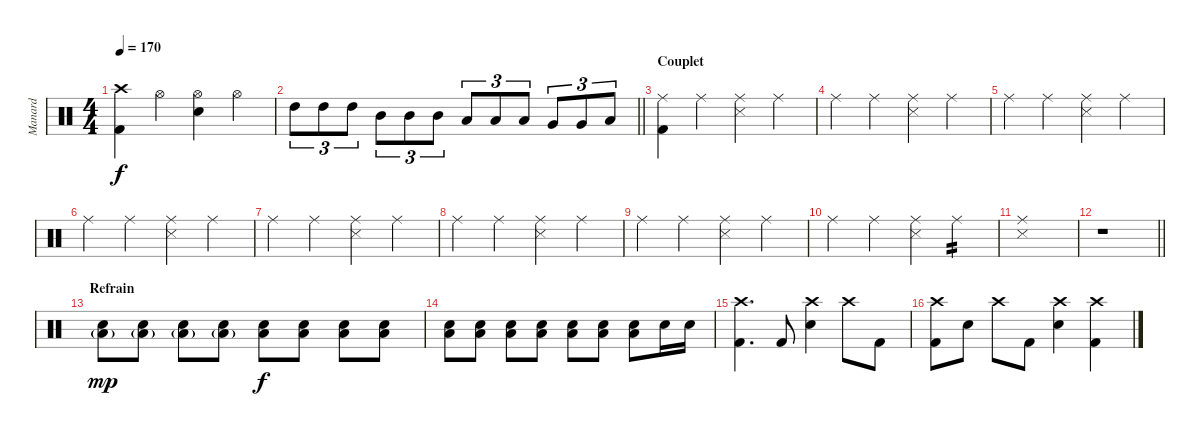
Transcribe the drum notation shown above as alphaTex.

\track ("Manard" "Manard") {instrument percussion}
\staff {score}
\articulation defaults
\ts (4 4)
\tempo 170
\clef neutral
\ks c
("Crash high (hit)" "Kick (hit) 2").4{dy f} "Hi-Hat (open)".4 ("Hi-Hat (open)" "Snare (hit) 2").4 "Hi-Hat (open)".4 |
\barLineRight lightlight "High Tom (hit)".8{tu (3 2)} "High Tom (hit)".8{tu (3 2)} "High Tom (hit)".8{tu (3 2)} "Mid Tom (hit)".8{tu (3 2)} "Mid Tom (hit)".8{tu (3 2)} "Mid Tom (hit)".8{tu (3 2)} "Low Tom (hit)".8{tu (3 2)} "Low Tom (hit)".8{tu (3 2)} "Low Tom (hit)".8{tu (3 2)} "Very Low Tom (hit)".8{tu (3 2)} "Very Low Tom (hit)".8{tu (3 2)} "Low Floor Tom (hit)".8{tu (3 2)}
|
\section ("" "Couplet")
("Ride (middle)" "Kick (hit) 2").4 "Ride (middle)".4 ("Ride (middle)" "Snare (side stick) 3").4 "Ride (middle)".4 |
"Ride (middle)".4 "Ride (middle)".4 ("Ride (middle)" "Snare (side stick) 3").4 "Ride (middle)".4 |
"Ride (middle)".4 "Ride (middle)".4 ("Ride (middle)" "Snare (side stick) 3").4 "Ride (middle)".4 |
"Ride (middle)".4 "Ride (middle)".4 ("Ride (middle)" "Snare (side stick) 3").4 "Ride (middle)".4 |
"Ride (middle)".4 "Ride (middle)".4 ("Ride (middle)" "Snare (side stick) 3").4 "Ride (middle)".4 |
"Ride (middle)".4 "Ride (middle)".4 ("Ride (middle)" "Snare (side stick) 3").4 "Ride (middle)".4 |
"Ride (middle)".4 "Ride (middle)".4 ("Ride (middle)" "Snare (side stick) 3").4 "Ride (middle)".4 |
"Ride (middle)".4 "Ride (middle)".4 ("Ride (middle)" "Snare (side stick) 3").4 "Ride (middle)".4{tp 2} |
("Ride (middle)" "Snare (side stick) 3").1 |
\barLineRight lightlight
r.1 |
\section ("" "Refrain")
("Low Tom (hit)"{g} "Snare (hit) 2").8{dy mp} ("Low Tom (hit)"{g} "Snare (hit) 2").8 ("Low Tom (hit)"{g} "Snare (hit) 2").8 ("Low Tom (hit)"{g} "Snare (hit) 2").8 ("Low Tom (hit)" "Snare (hit) 2").8{dy f} ("Low Tom (hit)" "Snare (hit) 2").8 ("Low Tom (hit)" "Snare (hit) 2").8 ("Low Tom (hit)" "Snare (hit) 2").8 |
("Low Tom (hit)" "Snare (hit) 2").8 ("Low Tom (hit)" "Snare (hit) 2").8 ("Low Tom (hit)" "Snare (hit) 2").8 ("Low Tom (hit)" "Snare (hit) 2").8 ("Low Tom (hit)" "Snare (hit) 2").8 ("Low Tom (hit)" "Snare (hit) 2").8 ("Low Tom (hit)" "Snare (hit) 2").8 "Snare (hit) 2".16 "Snare (hit) 2".16 |
("Crash high (hit)" "Kick (hit) 2").4{d} "Kick (hit) 2".8 ("Crash high (hit)" "Snare (hit) 2").4 "Crash high (hit)".8 "Kick (hit) 2".8 |
("Crash high (hit)" "Kick (hit) 2").8 "Snare (hit) 2".8 "Crash high (hit)".8 "Kick (hit) 2".8 ("Crash high (hit)" "Snare (hit) 2").4 ("Crash high (hit)" "Kick (hit) 2").4
